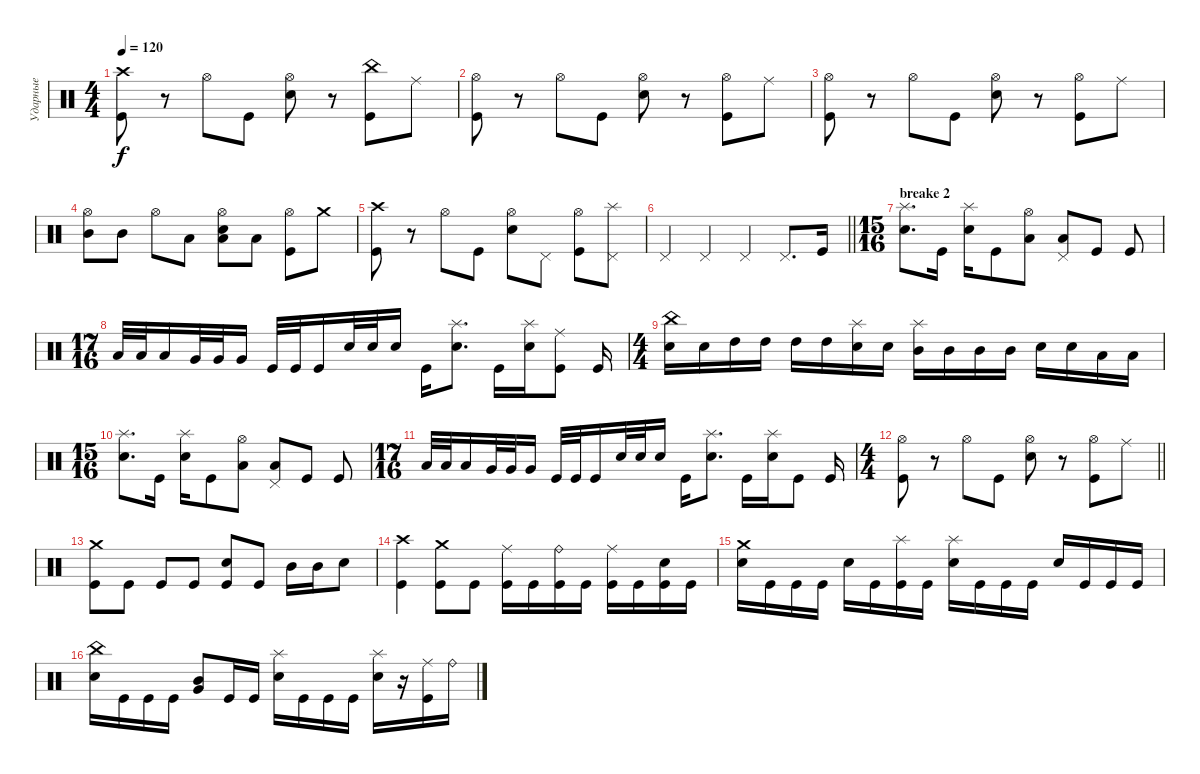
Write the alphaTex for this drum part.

\track ("Ударные" "Ударные") {instrument percussion}
\staff {score}
\articulation defaults
\ts (4 4)
\tempo 120
\clef neutral
\ks c
("Kick (hit)" "Crash high (hit)").8{dy f} r.8 "Hi-Hat (open)".8 "Kick (hit)".8 ("Electric Snare (hit)" "Hi-Hat (open)").8 r.8 ("Kick (hit)" "China (hit)").8 "Ride (middle)".8 |
("Kick (hit)" "Hi-Hat (open)").8 r.8 "Hi-Hat (open)".8 "Kick (hit)".8 ("Electric Snare (hit)" "Hi-Hat (open)").8 r.8 ("Kick (hit)" "Hi-Hat (open)").8 "Ride (middle)".8 |
("Kick (hit)" "Hi-Hat (open)").8 r.8 "Hi-Hat (open)".8 "Kick (hit)".8 ("Electric Snare (hit)" "Hi-Hat (open)").8 r.8 ("Kick (hit)" "Hi-Hat (open)").8 "Ride (middle)".8 |
("Mid Tom (hit)" "Hi-Hat (open)").8 "Mid Tom (hit)".8 "Hi-Hat (open)".8 "Low Tom (hit)".8 ("Low Tom (hit)" "Electric Snare (hit)" "Hi-Hat (open)").8 "Low Tom (hit)".8 ("Kick (hit)" "Hi-Hat (open)").8 "Crash medium (hit)".8 |
("Kick (hit)" "Crash high (hit)").8 r.8 "Hi-Hat (open)".8 "Kick (hit)".8 ("Electric Snare (hit)" "Hi-Hat (open)").8 "Pedal Hi-Hat (hit)".8 ("Kick (hit)" "Hi-Hat (open)").8 ("Splash (hit)" "Pedal Hi-Hat (hit)").8 |
\barLineRight lightlight "Pedal Hi-Hat (hit)".4 "Pedal Hi-Hat (hit)".4 "Pedal Hi-Hat (hit)".4 "Pedal Hi-Hat (hit)".8{d} "Kick (hit)".16
|
\ts (15 16)
\section ("" "breake 2")
("Splash (hit)" "Electric Snare (hit)").8{d} "Kick (hit)".16 ("Splash (hit)" "Electric Snare (hit)").16 "Kick (hit)".8 ("Hi-Hat (open)" "Low Tom (hit)").8 ("Pedal Hi-Hat (hit)" "Low Tom (hit)").8 "Kick (hit)".8 "Kick (hit)".8 |
\ts (17 16)
"Low Tom (hit)".32 "Low Tom (hit)".32 "Low Tom (hit)".16 "Very Low Tom (hit)".32 "Very Low Tom (hit)".32 "Very Low Tom (hit)".16 "Kick (hit)".32 "Kick (hit)".32 "Kick (hit)".16 "Electric Snare (hit)".32 "Electric Snare (hit)".32 "Electric Snare (hit)".16 "Kick (hit)".16 ("Splash (hit)" "Electric Snare (hit)").8{d} "Kick (hit)".16 ("Splash (hit)" "Electric Snare (hit)").16 ("Ride (middle)" "Kick (hit)").8 "Kick (hit)".16 |
\ts (4 4)
("China (hit)" "Electric Snare (hit)").16 "Electric Snare (hit)".16 "High Tom (hit)".16 "High Tom (hit)".16 "High Tom (hit)".16 "High Tom (hit)".16 ("Splash (hit)" "Electric Snare (hit)").16 "Electric Snare (hit)".16 ("Splash (hit)" "Mid Tom (hit)").16 "Mid Tom (hit)".16 "Mid Tom (hit)".16 "Mid Tom (hit)".16 "Electric Snare (hit)".16 "Electric Snare (hit)".16 "Low Tom (hit)".16 "Low Tom (hit)".16 |
\ts (15 16)
("Splash (hit)" "Electric Snare (hit)").8{d} "Kick (hit)".16 ("Splash (hit)" "Electric Snare (hit)").16 "Kick (hit)".8 ("Hi-Hat (open)" "Low Tom (hit)").8 ("Pedal Hi-Hat (hit)" "Low Tom (hit)").8 "Kick (hit)".8 "Kick (hit)".8 |
\ts (17 16)
"Low Tom (hit)".32 "Low Tom (hit)".32 "Low Tom (hit)".16 "Very Low Tom (hit)".32 "Very Low Tom (hit)".32 "Very Low Tom (hit)".16 "Kick (hit)".32 "Kick (hit)".32 "Kick (hit)".16 "Electric Snare (hit)".32 "Electric Snare (hit)".32 "Electric Snare (hit)".16 "Kick (hit)".16 ("Splash (hit)" "Electric Snare (hit)").8{d} "Kick (hit)".16 ("Splash (hit)" "Electric Snare (hit)").16 "Kick (hit)".8 "Kick (hit)".16 |
\ts (4 4)
\barLineRight lightlight
("Kick (hit)" "Hi-Hat (open)").8 r.8 "Hi-Hat (open)".8 "Kick (hit)".8 ("Electric Snare (hit)" "Hi-Hat (open)").8 r.8 ("Kick (hit)" "Hi-Hat (open)").8 "Ride (middle)".8 |
\section ("" " ")
("Kick (hit)" "Crash medium (hit)").8 "Kick (hit)".8 "Kick (hit)".8 "Kick (hit)".8 ("Kick (hit)" "Electric Snare (hit)").8 "Kick (hit)".8 "Mid Tom (hit)".16 "Mid Tom (hit)".16 "Electric Snare (hit)".8 |
("Crash high (hit)" "Kick (hit)").4 ("Kick (hit)" "Crash medium (hit)").8 "Kick (hit)".8 ("Kick (hit)" "Ride (middle)").16 "Kick (hit)".16 ("Kick (hit)" "Ride (bell)").16 "Kick (hit)".16 ("Kick (hit)" "Ride (middle)").16 "Kick (hit)".16 ("Kick (hit)" "Electric Snare (hit)").16 "Kick (hit)".16 |
("Crash medium (hit)" "Electric Snare (hit)").16 "Kick (hit)".16 "Kick (hit)".16 "Kick (hit)".16 "Electric Snare (hit)".16 "Kick (hit)".16 ("Splash (hit)" "Kick (hit)").16 "Kick (hit)".16 ("Splash (hit)" "Electric Snare (hit)").16 "Kick (hit)".16 "Kick (hit)".16 "Kick (hit)".16 "Electric Snare (hit)".16 "Kick (hit)".16 "Kick (hit)".16 "Kick (hit)".16 |
("China (hit)" "Electric Snare (hit)").16 "Kick (hit)".16 "Kick (hit)".16 "Kick (hit)".16 ("Mid Tom (hit)" "Very Low Tom (hit)").8 "Kick (hit)".16 "Kick (hit)".16 ("Splash (hit)" "Electric Snare (hit)").16 "Kick (hit)".16 "Kick (hit)".16 "Kick (hit)".16 ("Splash (hit)" "Electric Snare (hit)").16 r.16 ("Ride (middle)" "Kick (hit)").16 "Ride (bell)".16
